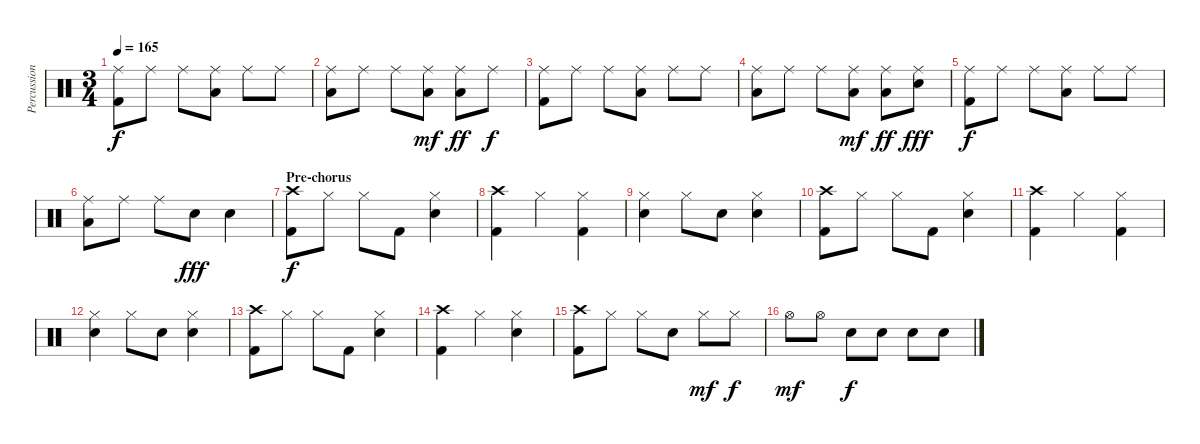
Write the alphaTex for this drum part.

\track ("Percussion" "Percussion") {instrument percussion}
\staff {score}
\articulation defaults
\ts (3 4)
\tempo 165
\clef neutral
\ks c
("Ride (middle)" "Kick (hit) 2").8{dy f} "Ride (middle)".8 "Ride (middle)".8 ("Ride (middle)" "Low Tom (hit)").8 "Ride (middle)".8 "Ride (middle)".8 |
("Ride (middle)" "Low Tom (hit)").8 "Ride (middle)".8 "Ride (middle)".8 ("Ride (middle)" "Low Tom (hit)").8{dy mf} ("Ride (middle)" "Low Tom (hit)").8{dy ff} "Ride (middle)".8{dy f} |
("Ride (middle)" "Kick (hit) 2").8 "Ride (middle)".8 "Ride (middle)".8 ("Ride (middle)" "Low Tom (hit)").8 "Ride (middle)".8 "Ride (middle)".8 |
("Ride (middle)" "Low Tom (hit)").8 "Ride (middle)".8 "Ride (middle)".8 ("Ride (middle)" "Low Tom (hit)").8{dy mf} ("Ride (middle)" "Low Tom (hit)").8{dy ff} ("Ride (middle)" "Electric Snare (hit)").8{dy fff} |
("Ride (middle)" "Kick (hit) 2").8{dy f} "Ride (middle)".8 "Ride (middle)".8 ("Ride (middle)" "Low Tom (hit)").8 "Ride (middle)".8 "Ride (middle)".8 |
("Ride (middle)" "Low Tom (hit)").8 "Ride (middle)".8 "Ride (middle)".8 "Electric Snare (hit)".8{dy fff} "Electric Snare (hit)".4 |
\section ("" "Pre-chorus")
("Crash high (hit)" "Kick (hit) 2").8{dy f} "Hi-Hat (closed)".8 "Hi-Hat (closed)".8 "Kick (hit) 2".8 ("Hi-Hat (closed)" "Electric Snare (hit)").4 |
("Crash high (hit)" "Kick (hit) 2").4 "Hi-Hat (closed)".4 ("Hi-Hat (closed)" "Kick (hit) 2").4 |
("Hi-Hat (closed)" "Electric Snare (hit)").4 "Hi-Hat (closed)".8 "Electric Snare (hit)".8 ("Hi-Hat (closed)" "Electric Snare (hit)").4 |
("Crash high (hit)" "Kick (hit) 2").8 "Hi-Hat (closed)".8 "Hi-Hat (closed)".8 "Kick (hit) 2".8 ("Hi-Hat (closed)" "Electric Snare (hit)").4 |
("Crash high (hit)" "Kick (hit) 2").4 "Hi-Hat (closed)".4 ("Hi-Hat (closed)" "Kick (hit) 2").4 |
("Hi-Hat (closed)" "Electric Snare (hit)").4 "Hi-Hat (closed)".8 "Electric Snare (hit)".8 ("Hi-Hat (closed)" "Electric Snare (hit)").4 |
("Crash high (hit)" "Kick (hit) 2").8 "Hi-Hat (closed)".8 "Hi-Hat (closed)".8 "Kick (hit) 2".8 ("Hi-Hat (closed)" "Electric Snare (hit)").4 |
("Crash high (hit)" "Kick (hit) 2").4 "Hi-Hat (closed)".4 ("Hi-Hat (closed)" "Electric Snare (hit)").4 |
("Crash high (hit)" "Kick (hit) 2").8 "Hi-Hat (closed)".8 "Hi-Hat (closed)".8 "Electric Snare (hit)".8 "Hi-Hat (closed)".8{dy mf} "Hi-Hat (closed)".8{dy f} |
"Hi-Hat (open)".8{dy mf} "Hi-Hat (open)".8 "Electric Snare (hit)".8{dy f} "Electric Snare (hit)".8 "Electric Snare (hit)".8 "Electric Snare (hit)".8
